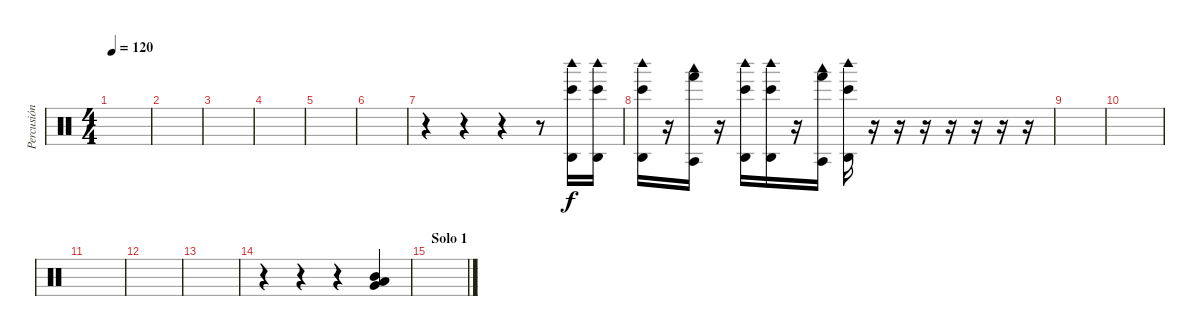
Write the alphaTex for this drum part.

\track ("Percusión" "Percusión") {instrument percussion}
\staff {score}
\articulation defaults
\ts (4 4)
\tempo 120
\clef neutral
\ks c
|
|
|
|
|
|
r.4 r.4 r.4 r.8 ("Agogo high (hit)" "Woodblock high (hit)" "Bongo High (hit)").16 ("Agogo high (hit)" "Woodblock high (hit)" "Bongo High (hit)").16 |
("Agogo high (hit)" "Woodblock high (hit)" "Bongo High (hit)").16 r.16 ("Agogo tow (hit)" "Woodblock low (hit)" "Hand (hit)").16 r.16 ("Agogo high (hit)" "Woodblock high (hit)" "Bongo High (hit)").16 ("Agogo high (hit)" "Woodblock high (hit)" "Bongo High (hit)").16 r.16 ("Agogo tow (hit)" "Woodblock low (hit)" "Hand (hit)").16 ("Agogo high (hit)" "Woodblock high (hit)" "Bongo High (hit)").16 r.16 r.16 r.16 r.16 r.16 r.16 r.16 |
|
|
|
|
|
r.4 r.4 r.4 ("Very Low Tom (hit)" "Low Tom (hit)" "Mid Tom (hit)").4 |
\section ("" "Solo 1")
